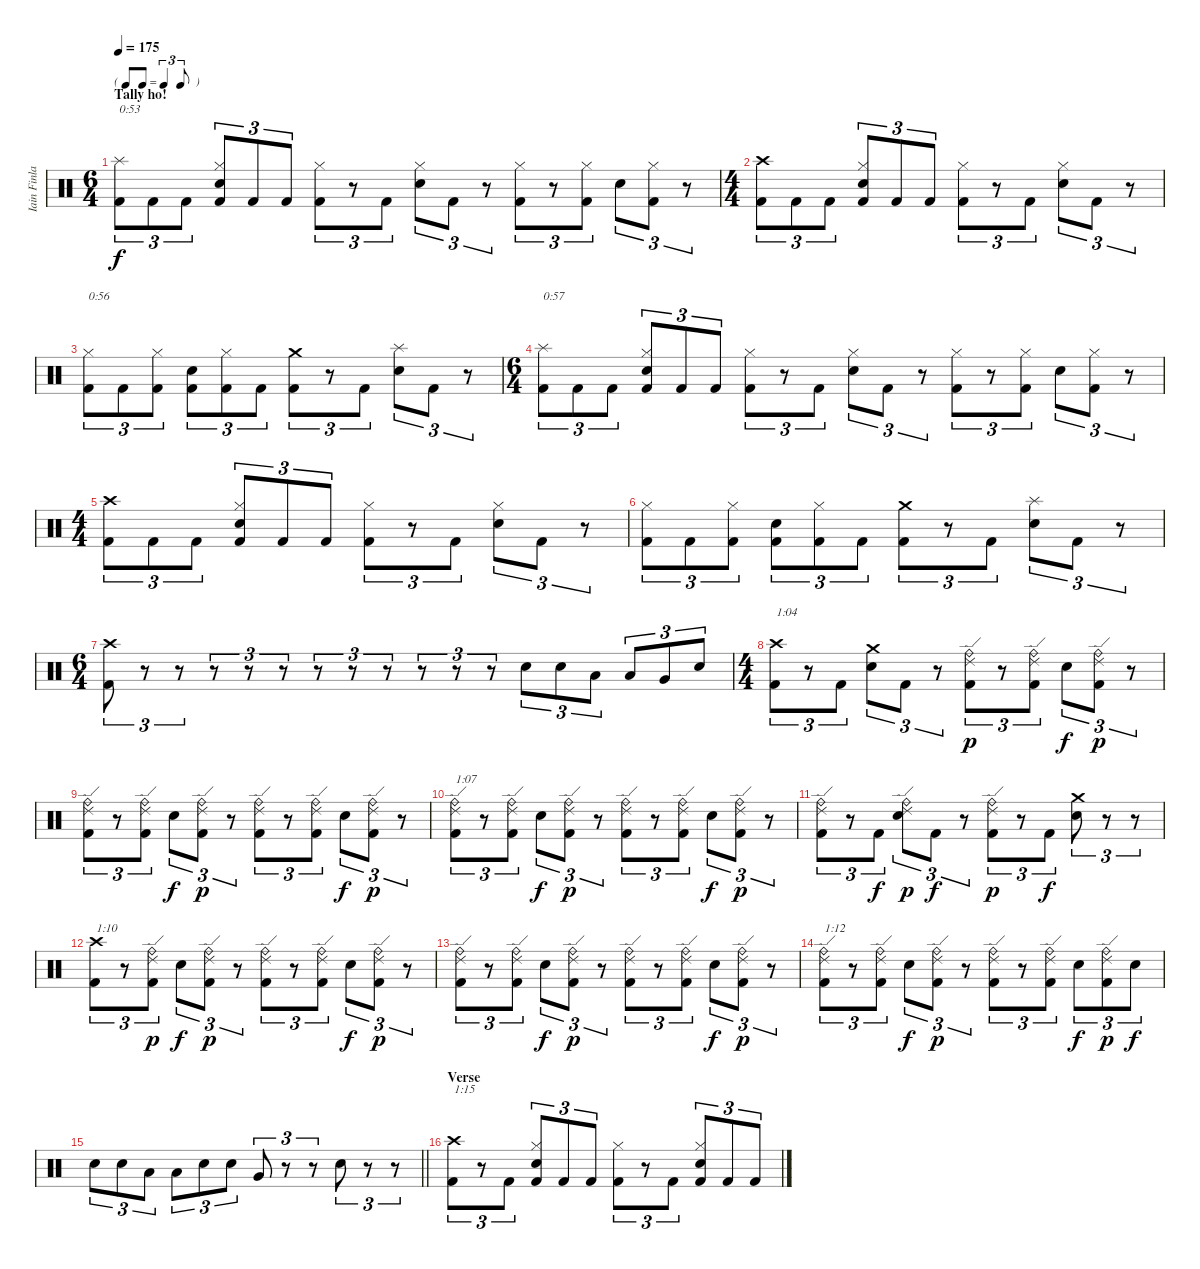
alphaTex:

\track ("Iain Finlay" "Iain Finla") {instrument percussion}
\staff {score}
\articulation defaults
\ts (6 4)
\tf triplet8th
\section ("" "Tally ho!")
\tempo 175
\clef neutral
\ks c
("Splash (hit)" "Kick (hit) 2").8{tu (3 2) txt "0:53" dy f} "Kick (hit) 2".8{tu (3 2)} "Kick (hit) 2".8{tu (3 2)} ("Hi-Hat (closed)" "Electric Snare (hit)" "Kick (hit) 2").8{tu (3 2)} "Kick (hit) 2".8{tu (3 2)} "Kick (hit) 2".8{tu (3 2)} ("Hi-Hat (closed)" "Kick (hit) 2").8{tu (3 2)} r.8{tu (3 2)} "Kick (hit) 2".8{tu (3 2)} ("Hi-Hat (closed)" "Electric Snare (hit)").8{tu (3 2)} "Kick (hit) 2".8{tu (3 2)} r.8{tu (3 2)} ("Hi-Hat (closed)" "Kick (hit) 2").8{tu (3 2)} r.8{tu (3 2)} ("Hi-Hat (closed)" "Kick (hit) 2").8{tu (3 2)} "Electric Snare (hit)".8{tu (3 2)} ("Hi-Hat (closed)" "Kick (hit) 2").8{tu (3 2)} r.8{tu (3 2)} |
\ts (4 4)
("Crash high (hit)" "Kick (hit) 2").8{tu (3 2)} "Kick (hit) 2".8{tu (3 2)} "Kick (hit) 2".8{tu (3 2)} ("Hi-Hat (closed)" "Electric Snare (hit)" "Kick (hit) 2").8{tu (3 2)} "Kick (hit) 2".8{tu (3 2)} "Kick (hit) 2".8{tu (3 2)} ("Hi-Hat (closed)" "Kick (hit) 2").8{tu (3 2)} r.8{tu (3 2)} "Kick (hit) 2".8{tu (3 2)} ("Hi-Hat (closed)" "Electric Snare (hit)").8{tu (3 2)} "Kick (hit) 2".8{tu (3 2)} r.8{tu (3 2)} |
("Hi-Hat (closed)" "Kick (hit) 2").8{tu (3 2) txt "0:56"} "Kick (hit) 2".8{tu (3 2)} ("Hi-Hat (closed)" "Kick (hit) 2").8{tu (3 2)} ("Electric Snare (hit)" "Kick (hit) 2").8{tu (3 2)} ("Hi-Hat (closed)" "Kick (hit) 2").8{tu (3 2)} "Kick (hit) 2".8{tu (3 2)} ("Crash medium (hit)" "Kick (hit) 2").8{tu (3 2)} r.8{tu (3 2)} "Kick (hit) 2".8{tu (3 2)} ("Splash (hit)" "Electric Snare (hit)").8{tu (3 2)} "Kick (hit) 2".8{tu (3 2)} r.8{tu (3 2)} |
\ts (6 4)
("Splash (hit)" "Kick (hit) 2").8{tu (3 2) txt "0:57"} "Kick (hit) 2".8{tu (3 2)} "Kick (hit) 2".8{tu (3 2)} ("Hi-Hat (closed)" "Electric Snare (hit)" "Kick (hit) 2").8{tu (3 2)} "Kick (hit) 2".8{tu (3 2)} "Kick (hit) 2".8{tu (3 2)} ("Hi-Hat (closed)" "Kick (hit) 2").8{tu (3 2)} r.8{tu (3 2)} "Kick (hit) 2".8{tu (3 2)} ("Hi-Hat (closed)" "Electric Snare (hit)").8{tu (3 2)} "Kick (hit) 2".8{tu (3 2)} r.8{tu (3 2)} ("Hi-Hat (closed)" "Kick (hit) 2").8{tu (3 2)} r.8{tu (3 2)} ("Hi-Hat (closed)" "Kick (hit) 2").8{tu (3 2)} "Electric Snare (hit)".8{tu (3 2)} ("Hi-Hat (closed)" "Kick (hit) 2").8{tu (3 2)} r.8{tu (3 2)} |
\ts (4 4)
("Crash high (hit)" "Kick (hit) 2").8{tu (3 2)} "Kick (hit) 2".8{tu (3 2)} "Kick (hit) 2".8{tu (3 2)} ("Hi-Hat (closed)" "Electric Snare (hit)" "Kick (hit) 2").8{tu (3 2)} "Kick (hit) 2".8{tu (3 2)} "Kick (hit) 2".8{tu (3 2)} ("Hi-Hat (closed)" "Kick (hit) 2").8{tu (3 2)} r.8{tu (3 2)} "Kick (hit) 2".8{tu (3 2)} ("Hi-Hat (closed)" "Electric Snare (hit)").8{tu (3 2)} "Kick (hit) 2".8{tu (3 2)} r.8{tu (3 2)} |
("Hi-Hat (closed)" "Kick (hit) 2").8{tu (3 2)} "Kick (hit) 2".8{tu (3 2)} ("Hi-Hat (closed)" "Kick (hit) 2").8{tu (3 2)} ("Electric Snare (hit)" "Kick (hit) 2").8{tu (3 2)} ("Hi-Hat (closed)" "Kick (hit) 2").8{tu (3 2)} "Kick (hit) 2".8{tu (3 2)} ("Crash medium (hit)" "Kick (hit) 2").8{tu (3 2)} r.8{tu (3 2)} "Kick (hit) 2".8{tu (3 2)} ("Splash (hit)" "Electric Snare (hit)").8{tu (3 2)} "Kick (hit) 2".8{tu (3 2)} r.8{tu (3 2)} |
\ts (6 4)
("Crash high (hit)" "Kick (hit) 2").8{tu (3 2)} r.8{tu (3 2)} r.8{tu (3 2)} r.8{tu (3 2)} r.8{tu (3 2)} r.8{tu (3 2)} r.8{tu (3 2)} r.8{tu (3 2)} r.8{tu (3 2)} r.8{tu (3 2)} r.8{tu (3 2)} r.8{tu (3 2)} "Electric Snare (hit)".8{tu (3 2)} "Electric Snare (hit)".8{tu (3 2)} "Low Tom (hit)".8{tu (3 2)} "Low Tom (hit)".8{tu (3 2)} "Very Low Tom (hit)".8{tu (3 2)} "Electric Snare (hit)".8{tu (3 2)} |
\ts (4 4)
("Crash high (hit)" "Kick (hit) 2").8{tu (3 2) txt "1:04"} r.8{tu (3 2)} "Kick (hit) 2".8{tu (3 2)} ("Crash medium (hit)" "Electric Snare (hit)").8{tu (3 2)} "Kick (hit) 2".8{tu (3 2)} r.8{tu (3 2)} ("Ride (edge) 2" "Ride (bell)" "Kick (hit) 2").8{tu (3 2) dy p} r.8{tu (3 2)} ("Ride (edge) 2" "Ride (bell)" "Kick (hit) 2").8{tu (3 2)} "Electric Snare (hit)".8{tu (3 2) dy f} ("Ride (edge) 2" "Ride (bell)" "Kick (hit) 2").8{tu (3 2) dy p} r.8{tu (3 2)} |
("Ride (edge) 2" "Ride (bell)" "Kick (hit) 2").8{tu (3 2)} r.8{tu (3 2)} ("Ride (edge) 2" "Ride (bell)" "Kick (hit) 2").8{tu (3 2)} "Electric Snare (hit)".8{tu (3 2) dy f} ("Ride (edge) 2" "Ride (bell)" "Kick (hit) 2").8{tu (3 2) dy p} r.8{tu (3 2)} ("Ride (edge) 2" "Ride (bell)" "Kick (hit) 2").8{tu (3 2)} r.8{tu (3 2)} ("Ride (edge) 2" "Ride (bell)" "Kick (hit) 2").8{tu (3 2)} "Electric Snare (hit)".8{tu (3 2) dy f} ("Ride (edge) 2" "Ride (bell)" "Kick (hit) 2").8{tu (3 2) dy p} r.8{tu (3 2)} |
("Ride (edge) 2" "Ride (bell)" "Kick (hit) 2").8{tu (3 2) txt "1:07"} r.8{tu (3 2)} ("Ride (edge) 2" "Ride (bell)" "Kick (hit) 2").8{tu (3 2)} "Electric Snare (hit)".8{tu (3 2) dy f} ("Ride (edge) 2" "Ride (bell)" "Kick (hit) 2").8{tu (3 2) dy p} r.8{tu (3 2)} ("Ride (edge) 2" "Ride (bell)" "Kick (hit) 2").8{tu (3 2)} r.8{tu (3 2)} ("Ride (edge) 2" "Ride (bell)" "Kick (hit) 2").8{tu (3 2)} "Electric Snare (hit)".8{tu (3 2) dy f} ("Ride (edge) 2" "Ride (bell)" "Kick (hit) 2").8{tu (3 2) dy p} r.8{tu (3 2)} |
("Ride (edge) 2" "Ride (bell)" "Kick (hit) 2").8{tu (3 2)} r.8{tu (3 2)} "Kick (hit) 2".8{tu (3 2) dy f} ("Ride (edge) 2" "Ride (bell)" "Electric Snare (hit)").8{tu (3 2) dy p} "Kick (hit) 2".8{tu (3 2) dy f} r.8{tu (3 2)} ("Ride (edge) 2" "Ride (bell)" "Kick (hit) 2").8{tu (3 2) dy p} r.8{tu (3 2)} "Kick (hit) 2".8{tu (3 2) dy f} ("Crash medium (hit)" "Electric Snare (hit)").8{tu (3 2)} r.8{tu (3 2)} r.8{tu (3 2)} |
("Crash high (hit)" "Kick (hit) 2").8{tu (3 2) txt "1:10"} r.8{tu (3 2)} ("Ride (edge) 2" "Ride (bell)" "Kick (hit) 2").8{tu (3 2) dy p} "Electric Snare (hit)".8{tu (3 2) dy f} ("Ride (edge) 2" "Ride (bell)" "Kick (hit) 2").8{tu (3 2) dy p} r.8{tu (3 2)} ("Ride (edge) 2" "Ride (bell)" "Kick (hit) 2").8{tu (3 2)} r.8{tu (3 2)} ("Ride (edge) 2" "Ride (bell)" "Kick (hit) 2").8{tu (3 2)} "Electric Snare (hit)".8{tu (3 2) dy f} ("Ride (edge) 2" "Ride (bell)" "Kick (hit) 2").8{tu (3 2) dy p} r.8{tu (3 2)} |
("Ride (edge) 2" "Ride (bell)" "Kick (hit) 2").8{tu (3 2)} r.8{tu (3 2)} ("Ride (edge) 2" "Ride (bell)" "Kick (hit) 2").8{tu (3 2)} "Electric Snare (hit)".8{tu (3 2) dy f} ("Ride (edge) 2" "Ride (bell)" "Kick (hit) 2").8{tu (3 2) dy p} r.8{tu (3 2)} ("Ride (edge) 2" "Ride (bell)" "Kick (hit) 2").8{tu (3 2)} r.8{tu (3 2)} ("Ride (edge) 2" "Ride (bell)" "Kick (hit) 2").8{tu (3 2)} "Electric Snare (hit)".8{tu (3 2) dy f} ("Ride (edge) 2" "Ride (bell)" "Kick (hit) 2").8{tu (3 2) dy p} r.8{tu (3 2)} |
("Ride (edge) 2" "Ride (bell)" "Kick (hit) 2").8{tu (3 2) txt "1:12"} r.8{tu (3 2)} ("Ride (edge) 2" "Ride (bell)" "Kick (hit) 2").8{tu (3 2)} "Electric Snare (hit)".8{tu (3 2) dy f} ("Ride (edge) 2" "Ride (bell)" "Kick (hit) 2").8{tu (3 2) dy p} r.8{tu (3 2)} ("Ride (edge) 2" "Ride (bell)" "Kick (hit) 2").8{tu (3 2)} r.8{tu (3 2)} ("Ride (edge) 2" "Ride (bell)" "Kick (hit) 2").8{tu (3 2)} "Electric Snare (hit)".8{tu (3 2) dy f} ("Ride (edge) 2" "Ride (bell)" "Kick (hit) 2").8{tu (3 2) dy p} "Electric Snare (hit)".8{tu (3 2) dy f} |
\barLineRight lightlight "Electric Snare (hit)".8{tu (3 2)} "Electric Snare (hit)".8{tu (3 2)} "Low Tom (hit)".8{tu (3 2)} "Low Tom (hit)".8{tu (3 2)} "Electric Snare (hit)".8{tu (3 2)} "Electric Snare (hit)".8{tu (3 2)} "Very Low Tom (hit)".8{tu (3 2)}
r.8{tu (3 2)} r.8{tu (3 2)} "Electric Snare (hit)".8{tu (3 2)} r.8{tu (3 2)} r.8{tu (3 2)} |
\section ("" "Verse")
("Crash high (hit)" "Kick (hit) 2").8{tu (3 2) txt "1:15"} r.8{tu (3 2)} "Kick (hit) 2".8{tu (3 2)} ("Hi-Hat (closed)" "Electric Snare (hit)" "Kick (hit) 2").8{tu (3 2)} "Kick (hit) 2".8{tu (3 2)} "Kick (hit) 2".8{tu (3 2)} ("Hi-Hat (closed)" "Kick (hit) 2").8{tu (3 2)} r.8{tu (3 2)} "Kick (hit) 2".8{tu (3 2)} ("Hi-Hat (closed)" "Electric Snare (hit)" "Kick (hit) 2").8{tu (3 2)} "Kick (hit) 2".8{tu (3 2)} "Kick (hit) 2".8{tu (3 2)}
